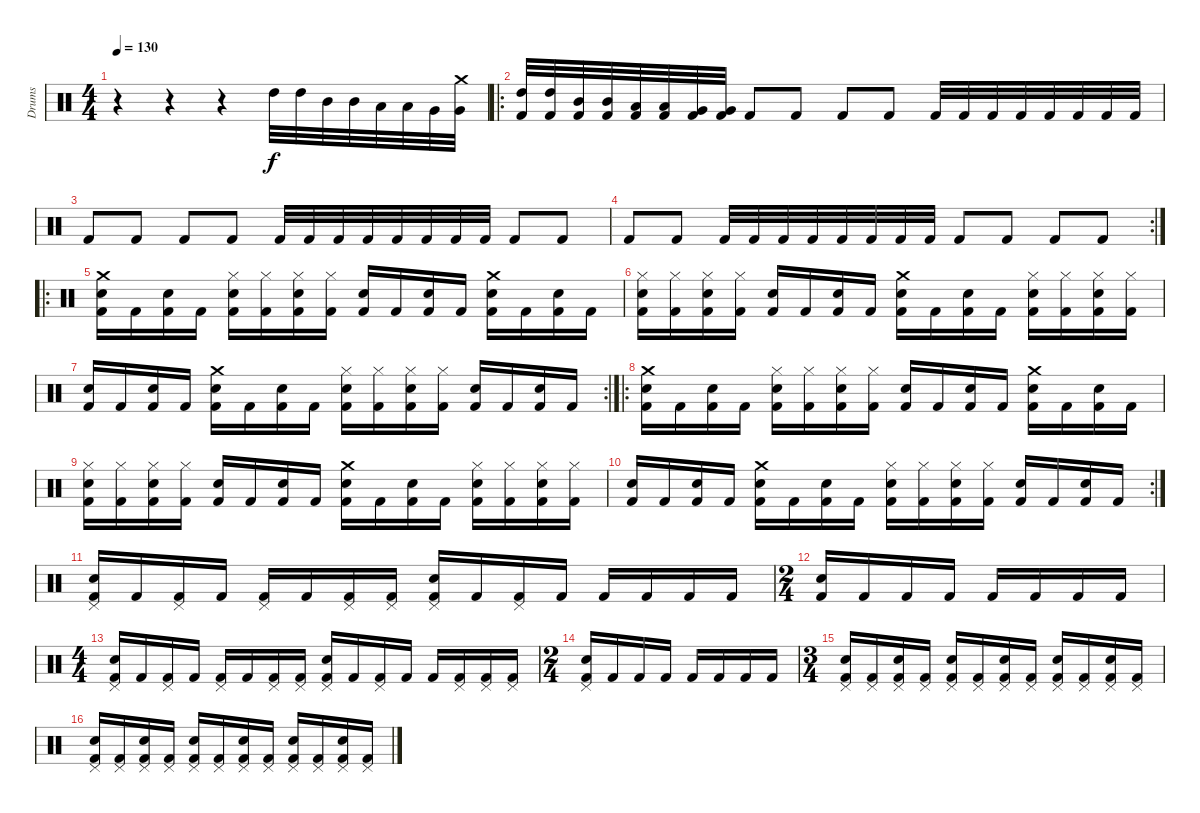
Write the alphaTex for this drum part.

\track ("Drums" "Drums") {instrument percussion}
\staff {score}
\articulation defaults
\ts (4 4)
\tempo 130
\clef neutral
\ks c
r.4{dy f} r.4 r.4 "High Tom (hit)".32 "High Tom (hit)".32 "Mid Tom (hit)".32 "Mid Tom (hit)".32 "Low Tom (hit)".32 "Low Tom (hit)".32 "Very Low Tom (hit)".32 ("Crash medium (hit)" "Very Low Tom (hit)").32 |
\ro
("High Tom (hit)" "Kick (hit) 2").32 ("High Tom (hit)" "Kick (hit) 2").32 ("Mid Tom (hit)" "Kick (hit) 2").32 ("Mid Tom (hit)" "Kick (hit) 2").32 ("Low Tom (hit)" "Kick (hit) 2").32 ("Low Tom (hit)" "Kick (hit) 2").32 ("Very Low Tom (hit)" "Kick (hit) 2").32 ("Very Low Tom (hit)" "Kick (hit) 2").32 "Kick (hit) 2".8 "Kick (hit) 2".8 "Kick (hit) 2".8 "Kick (hit) 2".8 "Kick (hit) 2".32 "Kick (hit) 2".32 "Kick (hit) 2".32 "Kick (hit) 2".32 "Kick (hit) 2".32 "Kick (hit) 2".32 "Kick (hit) 2".32 "Kick (hit) 2".32 |
"Kick (hit) 2".8 "Kick (hit) 2".8 "Kick (hit) 2".8 "Kick (hit) 2".8 "Kick (hit) 2".32 "Kick (hit) 2".32 "Kick (hit) 2".32 "Kick (hit) 2".32 "Kick (hit) 2".32 "Kick (hit) 2".32 "Kick (hit) 2".32 "Kick (hit) 2".32 "Kick (hit) 2".8 "Kick (hit) 2".8 |
\rc 2 "Kick (hit) 2".8 "Kick (hit) 2".8 "Kick (hit) 2".32 "Kick (hit) 2".32 "Kick (hit) 2".32 "Kick (hit) 2".32 "Kick (hit) 2".32 "Kick (hit) 2".32 "Kick (hit) 2".32 "Kick (hit) 2".32 "Kick (hit) 2".8 "Kick (hit) 2".8 "Kick (hit) 2".8 "Kick (hit) 2".8
|
\ro
("Crash medium (hit)" "Electric Snare (hit)" "Kick (hit) 2").16 "Kick (hit) 2".16 ("Electric Snare (hit)" "Kick (hit) 2").16 "Kick (hit) 2".16 ("Hi-Hat (closed)" "Electric Snare (hit)" "Kick (hit) 2").16 ("Hi-Hat (closed)" "Kick (hit) 2").16 ("Hi-Hat (closed)" "Electric Snare (hit)" "Kick (hit) 2").16 ("Hi-Hat (closed)" "Kick (hit) 2").16 ("Electric Snare (hit)" "Kick (hit) 2").16 "Kick (hit) 2".16 ("Electric Snare (hit)" "Kick (hit) 2").16 "Kick (hit) 2".16 ("Crash medium (hit)" "Electric Snare (hit)" "Kick (hit) 2").16 "Kick (hit) 2".16 ("Electric Snare (hit)" "Kick (hit) 2").16 "Kick (hit) 2".16 |
("Hi-Hat (closed)" "Electric Snare (hit)" "Kick (hit) 2").16 ("Hi-Hat (closed)" "Kick (hit) 2").16 ("Hi-Hat (closed)" "Electric Snare (hit)" "Kick (hit) 2").16 ("Hi-Hat (closed)" "Kick (hit) 2").16 ("Electric Snare (hit)" "Kick (hit) 2").16 "Kick (hit) 2".16 ("Electric Snare (hit)" "Kick (hit) 2").16 "Kick (hit) 2".16 ("Crash medium (hit)" "Electric Snare (hit)" "Kick (hit) 2").16 "Kick (hit) 2".16 ("Electric Snare (hit)" "Kick (hit) 2").16 "Kick (hit) 2".16 ("Hi-Hat (closed)" "Electric Snare (hit)" "Kick (hit) 2").16 ("Hi-Hat (closed)" "Kick (hit) 2").16 ("Hi-Hat (closed)" "Electric Snare (hit)" "Kick (hit) 2").16 ("Hi-Hat (closed)" "Kick (hit) 2").16 |
\rc 2
("Electric Snare (hit)" "Kick (hit) 2").16 "Kick (hit) 2".16 ("Electric Snare (hit)" "Kick (hit) 2").16 "Kick (hit) 2".16 ("Crash medium (hit)" "Electric Snare (hit)" "Kick (hit) 2").16 "Kick (hit) 2".16 ("Electric Snare (hit)" "Kick (hit) 2").16 "Kick (hit) 2".16 ("Hi-Hat (closed)" "Electric Snare (hit)" "Kick (hit) 2").16 ("Hi-Hat (closed)" "Kick (hit) 2").16 ("Hi-Hat (closed)" "Electric Snare (hit)" "Kick (hit) 2").16 ("Hi-Hat (closed)" "Kick (hit) 2").16 ("Electric Snare (hit)" "Kick (hit) 2").16 "Kick (hit) 2".16 ("Electric Snare (hit)" "Kick (hit) 2").16 "Kick (hit) 2".16 |
\ro
("Crash medium (hit)" "Electric Snare (hit)" "Kick (hit) 2").16 "Kick (hit) 2".16 ("Electric Snare (hit)" "Kick (hit) 2").16 "Kick (hit) 2".16 ("Hi-Hat (closed)" "Electric Snare (hit)" "Kick (hit) 2").16 ("Hi-Hat (closed)" "Kick (hit) 2").16 ("Hi-Hat (closed)" "Electric Snare (hit)" "Kick (hit) 2").16 ("Hi-Hat (closed)" "Kick (hit) 2").16 ("Electric Snare (hit)" "Kick (hit) 2").16 "Kick (hit) 2".16 ("Electric Snare (hit)" "Kick (hit) 2").16 "Kick (hit) 2".16 ("Crash medium (hit)" "Electric Snare (hit)" "Kick (hit) 2").16 "Kick (hit) 2".16 ("Electric Snare (hit)" "Kick (hit) 2").16 "Kick (hit) 2".16 |
("Hi-Hat (closed)" "Electric Snare (hit)" "Kick (hit) 2").16 ("Hi-Hat (closed)" "Kick (hit) 2").16 ("Hi-Hat (closed)" "Electric Snare (hit)" "Kick (hit) 2").16 ("Hi-Hat (closed)" "Kick (hit) 2").16 ("Electric Snare (hit)" "Kick (hit) 2").16 "Kick (hit) 2".16 ("Electric Snare (hit)" "Kick (hit) 2").16 "Kick (hit) 2".16 ("Crash medium (hit)" "Electric Snare (hit)" "Kick (hit) 2").16 "Kick (hit) 2".16 ("Electric Snare (hit)" "Kick (hit) 2").16 "Kick (hit) 2".16 ("Hi-Hat (closed)" "Electric Snare (hit)" "Kick (hit) 2").16 ("Hi-Hat (closed)" "Kick (hit) 2").16 ("Hi-Hat (closed)" "Electric Snare (hit)" "Kick (hit) 2").16 ("Hi-Hat (closed)" "Kick (hit) 2").16 |
\rc 2
("Electric Snare (hit)" "Kick (hit) 2").16 "Kick (hit) 2".16 ("Electric Snare (hit)" "Kick (hit) 2").16 "Kick (hit) 2".16 ("Crash medium (hit)" "Electric Snare (hit)" "Kick (hit) 2").16 "Kick (hit) 2".16 ("Electric Snare (hit)" "Kick (hit) 2").16 "Kick (hit) 2".16 ("Hi-Hat (closed)" "Electric Snare (hit)" "Kick (hit) 2").16 ("Hi-Hat (closed)" "Kick (hit) 2").16 ("Hi-Hat (closed)" "Electric Snare (hit)" "Kick (hit) 2").16 ("Hi-Hat (closed)" "Kick (hit) 2").16 ("Electric Snare (hit)" "Kick (hit) 2").16 "Kick (hit) 2".16 ("Electric Snare (hit)" "Kick (hit) 2").16 "Kick (hit) 2".16 |
("Pedal Hi-Hat (hit)" "Electric Snare (hit)" "Kick (hit) 2").16 "Kick (hit) 2".16 ("Pedal Hi-Hat (hit)" "Kick (hit) 2").16 "Kick (hit) 2".16 ("Pedal Hi-Hat (hit)" "Kick (hit) 2").16 "Kick (hit) 2".16 ("Pedal Hi-Hat (hit)" "Kick (hit) 2").16 ("Pedal Hi-Hat (hit)" "Kick (hit) 2").16 ("Pedal Hi-Hat (hit)" "Electric Snare (hit)" "Kick (hit) 2").16 "Kick (hit) 2".16 ("Pedal Hi-Hat (hit)" "Kick (hit) 2").16 "Kick (hit) 2".16 "Kick (hit) 2".16 "Kick (hit) 2".16 "Kick (hit) 2".16 "Kick (hit) 2".16 |
\ts (2 4)
("Electric Snare (hit)" "Kick (hit) 2").16 "Kick (hit) 2".16 "Kick (hit) 2".16 "Kick (hit) 2".16 "Kick (hit) 2".16 "Kick (hit) 2".16 "Kick (hit) 2".16 "Kick (hit) 2".16 |
\ts (4 4)
("Pedal Hi-Hat (hit)" "Electric Snare (hit)" "Kick (hit) 2").16 "Kick (hit) 2".16 ("Pedal Hi-Hat (hit)" "Kick (hit) 2").16 "Kick (hit) 2".16 ("Pedal Hi-Hat (hit)" "Kick (hit) 2").16 "Kick (hit) 2".16 ("Pedal Hi-Hat (hit)" "Kick (hit) 2").16 ("Pedal Hi-Hat (hit)" "Kick (hit) 2").16 ("Pedal Hi-Hat (hit)" "Electric Snare (hit)" "Kick (hit) 2").16 "Kick (hit) 2".16 ("Pedal Hi-Hat (hit)" "Kick (hit) 2").16 "Kick (hit) 2".16 "Kick (hit) 2".16 ("Pedal Hi-Hat (hit)" "Kick (hit) 2").16 ("Pedal Hi-Hat (hit)" "Kick (hit) 2").16 ("Pedal Hi-Hat (hit)" "Kick (hit) 2").16 |
\ts (2 4)
("Pedal Hi-Hat (hit)" "Electric Snare (hit)" "Kick (hit) 2").16 "Kick (hit) 2".16 "Kick (hit) 2".16 "Kick (hit) 2".16 "Kick (hit) 2".16 "Kick (hit) 2".16 "Kick (hit) 2".16 "Kick (hit) 2".16 |
\ts (3 4)
("Electric Snare (hit)" "Pedal Hi-Hat (hit)" "Kick (hit) 2").16 ("Pedal Hi-Hat (hit)" "Kick (hit) 2").16 ("Electric Snare (hit)" "Pedal Hi-Hat (hit)" "Kick (hit) 2").16 ("Pedal Hi-Hat (hit)" "Kick (hit) 2").16 ("Electric Snare (hit)" "Pedal Hi-Hat (hit)" "Kick (hit) 2").16 ("Pedal Hi-Hat (hit)" "Kick (hit) 2").16 ("Electric Snare (hit)" "Pedal Hi-Hat (hit)" "Kick (hit) 2").16 ("Pedal Hi-Hat (hit)" "Kick (hit) 2").16 ("Electric Snare (hit)" "Pedal Hi-Hat (hit)" "Kick (hit) 2").16 ("Pedal Hi-Hat (hit)" "Kick (hit) 2").16 ("Electric Snare (hit)" "Pedal Hi-Hat (hit)" "Kick (hit) 2").16 ("Pedal Hi-Hat (hit)" "Kick (hit) 2").16 |
("Electric Snare (hit)" "Pedal Hi-Hat (hit)" "Kick (hit) 2").16 ("Pedal Hi-Hat (hit)" "Kick (hit) 2").16 ("Electric Snare (hit)" "Pedal Hi-Hat (hit)" "Kick (hit) 2").16 ("Pedal Hi-Hat (hit)" "Kick (hit) 2").16 ("Electric Snare (hit)" "Pedal Hi-Hat (hit)" "Kick (hit) 2").16 ("Pedal Hi-Hat (hit)" "Kick (hit) 2").16 ("Electric Snare (hit)" "Pedal Hi-Hat (hit)" "Kick (hit) 2").16 ("Pedal Hi-Hat (hit)" "Kick (hit) 2").16 ("Electric Snare (hit)" "Pedal Hi-Hat (hit)" "Kick (hit) 2").16 ("Pedal Hi-Hat (hit)" "Kick (hit) 2").16 ("Electric Snare (hit)" "Pedal Hi-Hat (hit)" "Kick (hit) 2").16 ("Pedal Hi-Hat (hit)" "Kick (hit) 2").16
